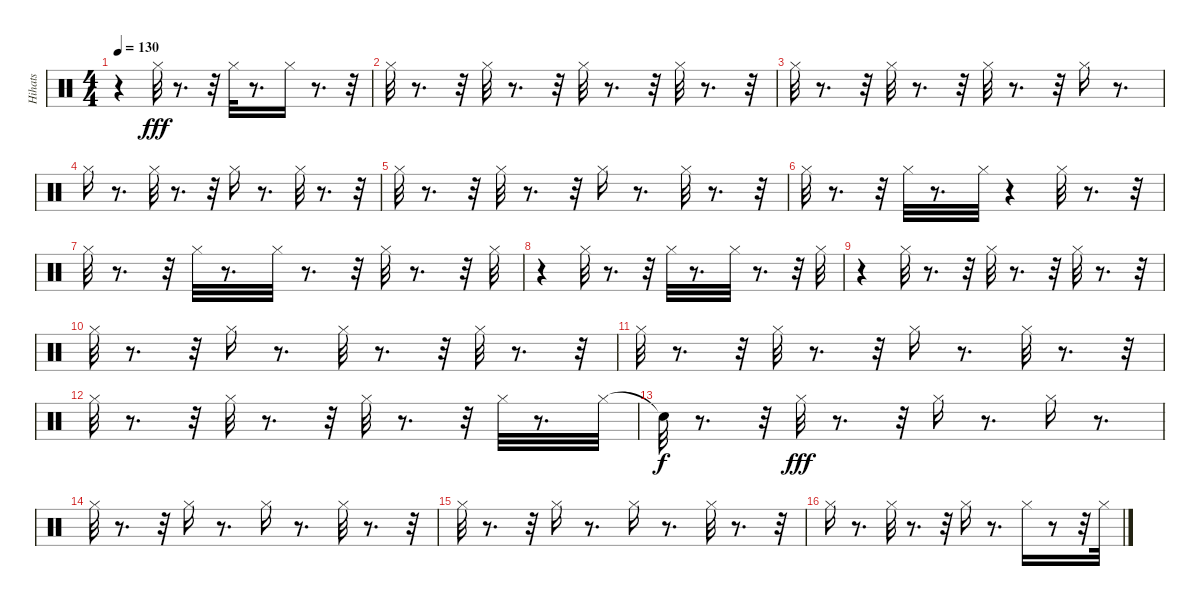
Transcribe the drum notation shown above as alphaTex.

\track ("Hihats" "Hihats") {instrument percussion}
\staff {score}
\articulation defaults
\ts (4 4)
\tempo 130
\clef neutral
\ks c
r.4{dy fff} "Hi-Hat (closed)".32 r.8{d} r.32 "Hi-Hat (closed)".32 r.8{d} "Hi-Hat (closed)".16 r.8{d} r.32 |
"Hi-Hat (closed)".32 r.8{d} r.32 "Hi-Hat (closed)".32 r.8{d} r.32 "Hi-Hat (closed)".32 r.8{d} r.32 "Hi-Hat (closed)".32 r.8{d} r.32 |
"Hi-Hat (closed)".32 r.8{d} r.32 "Hi-Hat (closed)".32 r.8{d} r.32 "Hi-Hat (closed)".32 r.8{d} r.32 "Hi-Hat (closed)".16 r.8{d} |
"Hi-Hat (closed)".16 r.8{d} "Hi-Hat (closed)".32 r.8{d} r.32 "Hi-Hat (closed)".16 r.8{d} "Hi-Hat (closed)".32 r.8{d} r.32 |
"Hi-Hat (closed)".32 r.8{d} r.32 "Hi-Hat (closed)".32 r.8{d} r.32 "Hi-Hat (closed)".16 r.8{d} "Hi-Hat (closed)".32 r.8{d} r.32 |
"Hi-Hat (closed)".32 r.8{d} r.32 "Hi-Hat (closed)".32 r.8{d} "Hi-Hat (closed)".32 r.4 "Hi-Hat (closed)".32 r.8{d} r.32 |
"Hi-Hat (closed)".32 r.8{d} r.32 "Hi-Hat (closed)".32 r.8{d} "Hi-Hat (closed)".32 r.8{d} r.32 "Hi-Hat (closed)".32 r.8{d} r.32 "Hi-Hat (closed)".32 |
r.4 "Hi-Hat (closed)".32 r.8{d} r.32 "Hi-Hat (closed)".32 r.8{d} "Hi-Hat (closed)".32 r.8{d} r.32 "Hi-Hat (closed)".32 |
r.4 "Hi-Hat (closed)".32 r.8{d} r.32 "Hi-Hat (closed)".32 r.8{d} r.32 "Hi-Hat (closed)".32 r.8{d} r.32 |
"Hi-Hat (closed)".32 r.8{d} r.32 "Hi-Hat (closed)".16 r.8{d} "Hi-Hat (closed)".32 r.8{d} r.32 "Hi-Hat (closed)".32 r.8{d} r.32 |
"Hi-Hat (closed)".32 r.8{d} r.32 "Hi-Hat (closed)".32 r.8{d} r.32 "Hi-Hat (closed)".16 r.8{d} "Hi-Hat (closed)".32 r.8{d} r.32 |
"Hi-Hat (closed)".32 r.8{d} r.32 "Hi-Hat (closed)".32 r.8{d} r.32 "Hi-Hat (closed)".32 r.8{d} r.32 "Hi-Hat (closed)".32 r.8{d} "Hi-Hat (closed)".32 |
"Snare (hit)"{t}.32{dy f} r.8{d} r.32 "Hi-Hat (closed)".32{dy fff} r.8{d} r.32 "Hi-Hat (closed)".16 r.8{d} "Hi-Hat (closed)".16 r.8{d} |
"Hi-Hat (closed)".32 r.8{d} r.32 "Hi-Hat (closed)".16 r.8{d} "Hi-Hat (closed)".16 r.8{d} "Hi-Hat (closed)".32 r.8{d} r.32 |
"Hi-Hat (closed)".32 r.8{d} r.32 "Hi-Hat (closed)".16 r.8{d} "Hi-Hat (closed)".16 r.8{d} "Hi-Hat (closed)".32 r.8{d} r.32 |
"Hi-Hat (closed)".16 r.8{d} "Hi-Hat (closed)".32 r.8{d} r.32 "Hi-Hat (closed)".16 r.8{d} "Hi-Hat (closed)".16 r.8 r.32 "Hi-Hat (closed)".32
